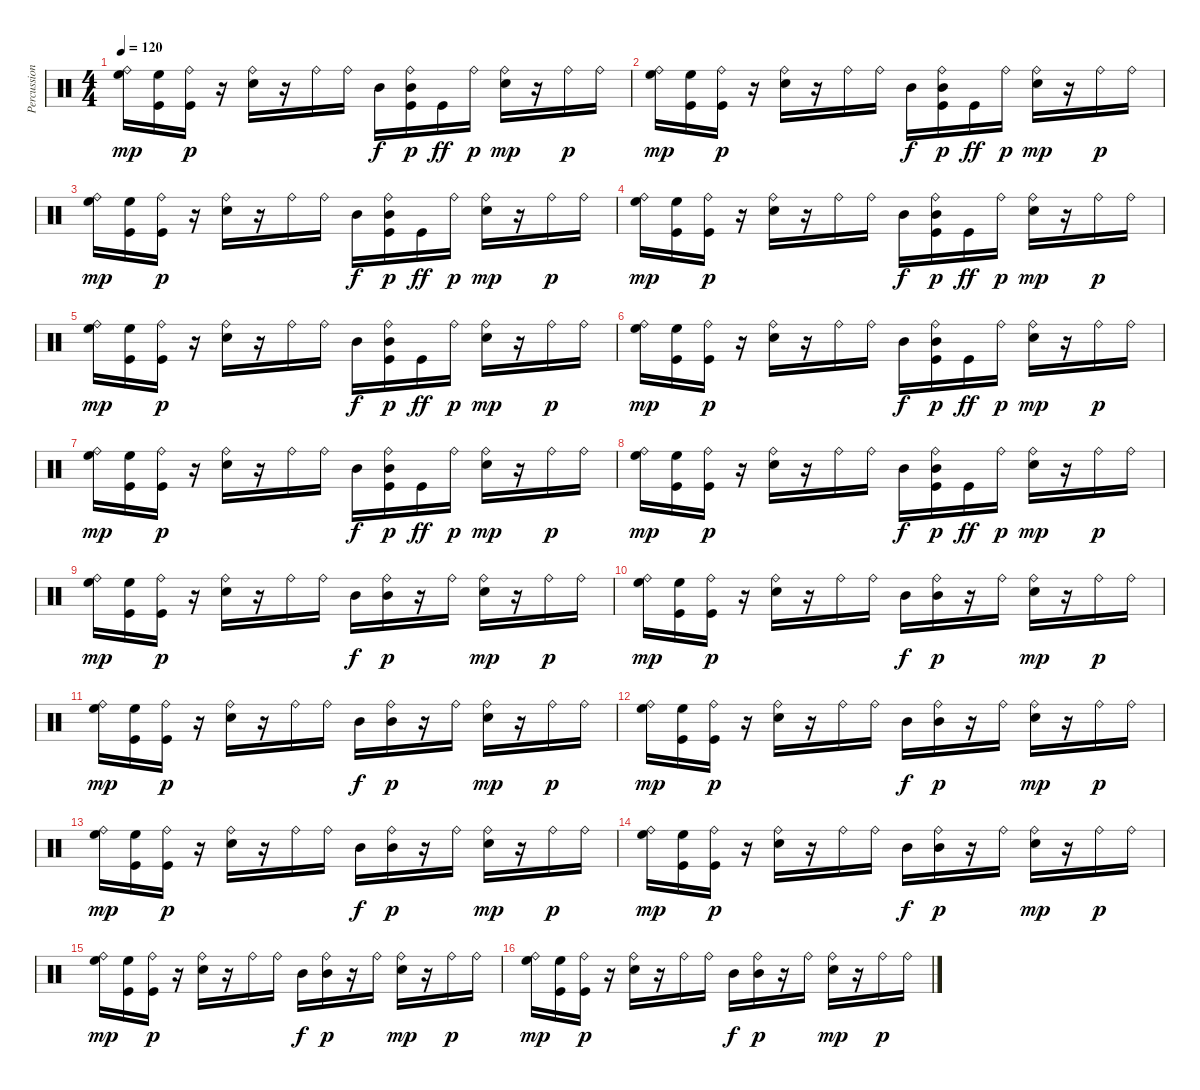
\track ("Percussions" "Percussion") {instrument percussion}
\staff {score}
\articulation defaults
\ts (4 4)
\tempo 120
\clef neutral
\ks c
("High Floor Tom (hit)" "Ride (bell)").16{dy mp} ("Kick (hit)" "High Floor Tom (hit)").16 ("Kick (hit)" "Ride (bell)").16{dy p} r.16 ("Snare (hit) 2" "Ride (bell)").16 r.16 "Ride (bell)".16 "Ride (bell)".16 "Mid Tom (hit)".16{dy f} ("Kick (hit)" "Mid Tom (hit)" "Ride (bell)").16{dy p} "Kick (hit)".16{dy ff} "Ride (bell)".16{dy p} ("Snare (hit) 2" "Ride (bell)").16{dy mp} r.16 "Ride (bell)".16{dy p} "Ride (bell)".16 |
("High Floor Tom (hit)" "Ride (bell)").16{dy mp} ("Kick (hit)" "High Floor Tom (hit)").16 ("Kick (hit)" "Ride (bell)").16{dy p} r.16 ("Snare (hit) 2" "Ride (bell)").16 r.16 "Ride (bell)".16 "Ride (bell)".16 "Mid Tom (hit)".16{dy f} ("Kick (hit)" "Mid Tom (hit)" "Ride (bell)").16{dy p} "Kick (hit)".16{dy ff} "Ride (bell)".16{dy p} ("Snare (hit) 2" "Ride (bell)").16{dy mp} r.16 "Ride (bell)".16{dy p} "Ride (bell)".16 |
("High Floor Tom (hit)" "Ride (bell)").16{dy mp} ("Kick (hit)" "High Floor Tom (hit)").16 ("Kick (hit)" "Ride (bell)").16{dy p} r.16 ("Snare (hit) 2" "Ride (bell)").16 r.16 "Ride (bell)".16 "Ride (bell)".16 "Mid Tom (hit)".16{dy f} ("Kick (hit)" "Mid Tom (hit)" "Ride (bell)").16{dy p} "Kick (hit)".16{dy ff} "Ride (bell)".16{dy p} ("Snare (hit) 2" "Ride (bell)").16{dy mp} r.16 "Ride (bell)".16{dy p} "Ride (bell)".16 |
("High Floor Tom (hit)" "Ride (bell)").16{dy mp} ("Kick (hit)" "High Floor Tom (hit)").16 ("Kick (hit)" "Ride (bell)").16{dy p} r.16 ("Snare (hit) 2" "Ride (bell)").16 r.16 "Ride (bell)".16 "Ride (bell)".16 "Mid Tom (hit)".16{dy f} ("Kick (hit)" "Mid Tom (hit)" "Ride (bell)").16{dy p} "Kick (hit)".16{dy ff} "Ride (bell)".16{dy p} ("Snare (hit) 2" "Ride (bell)").16{dy mp} r.16 "Ride (bell)".16{dy p} "Ride (bell)".16 |
("High Floor Tom (hit)" "Ride (bell)").16{dy mp} ("Kick (hit)" "High Floor Tom (hit)").16 ("Kick (hit)" "Ride (bell)").16{dy p} r.16 ("Snare (hit) 2" "Ride (bell)").16 r.16 "Ride (bell)".16 "Ride (bell)".16 "Mid Tom (hit)".16{dy f} ("Kick (hit)" "Mid Tom (hit)" "Ride (bell)").16{dy p} "Kick (hit)".16{dy ff} "Ride (bell)".16{dy p} ("Snare (hit) 2" "Ride (bell)").16{dy mp} r.16 "Ride (bell)".16{dy p} "Ride (bell)".16 |
("High Floor Tom (hit)" "Ride (bell)").16{dy mp} ("Kick (hit)" "High Floor Tom (hit)").16 ("Kick (hit)" "Ride (bell)").16{dy p} r.16 ("Snare (hit) 2" "Ride (bell)").16 r.16 "Ride (bell)".16 "Ride (bell)".16 "Mid Tom (hit)".16{dy f} ("Kick (hit)" "Mid Tom (hit)" "Ride (bell)").16{dy p} "Kick (hit)".16{dy ff} "Ride (bell)".16{dy p} ("Snare (hit) 2" "Ride (bell)").16{dy mp} r.16 "Ride (bell)".16{dy p} "Ride (bell)".16 |
("High Floor Tom (hit)" "Ride (bell)").16{dy mp} ("Kick (hit)" "High Floor Tom (hit)").16 ("Kick (hit)" "Ride (bell)").16{dy p} r.16 ("Snare (hit) 2" "Ride (bell)").16 r.16 "Ride (bell)".16 "Ride (bell)".16 "Mid Tom (hit)".16{dy f} ("Kick (hit)" "Mid Tom (hit)" "Ride (bell)").16{dy p} "Kick (hit)".16{dy ff} "Ride (bell)".16{dy p} ("Snare (hit) 2" "Ride (bell)").16{dy mp} r.16 "Ride (bell)".16{dy p} "Ride (bell)".16 |
("High Floor Tom (hit)" "Ride (bell)").16{dy mp} ("Kick (hit)" "High Floor Tom (hit)").16 ("Kick (hit)" "Ride (bell)").16{dy p} r.16 ("Snare (hit) 2" "Ride (bell)").16 r.16 "Ride (bell)".16 "Ride (bell)".16 "Mid Tom (hit)".16{dy f} ("Kick (hit)" "Mid Tom (hit)" "Ride (bell)").16{dy p} "Kick (hit)".16{dy ff} "Ride (bell)".16{dy p} ("Snare (hit) 2" "Ride (bell)").16{dy mp} r.16 "Ride (bell)".16{dy p} "Ride (bell)".16 |
("High Floor Tom (hit)" "Ride (bell)").16{dy mp} ("Kick (hit)" "High Floor Tom (hit)").16 ("Kick (hit)" "Ride (bell)").16{dy p} r.16 ("Snare (hit) 2" "Ride (bell)").16 r.16 "Ride (bell)".16 "Ride (bell)".16 "Mid Tom (hit)".16{dy f} ("Mid Tom (hit)" "Ride (bell)").16{dy p} r.16 "Ride (bell)".16 ("Snare (hit) 2" "Ride (bell)").16{dy mp} r.16 "Ride (bell)".16{dy p} "Ride (bell)".16{volume 15} |
("High Floor Tom (hit)" "Ride (bell)").16{dy mp} ("Kick (hit)" "High Floor Tom (hit)").16 ("Kick (hit)" "Ride (bell)").16{dy p} r.16 ("Snare (hit) 2" "Ride (bell)").16 r.16 "Ride (bell)".16{volume 15} "Ride (bell)".16 "Mid Tom (hit)".16{dy f volume 15} ("Mid Tom (hit)" "Ride (bell)").16{dy p} r.16 "Ride (bell)".16{volume 14} ("Snare (hit) 2" "Ride (bell)").16{dy mp volume 14} r.16 "Ride (bell)".16{dy p volume 14} "Ride (bell)".16{volume 14} |
("High Floor Tom (hit)" "Ride (bell)").16{dy mp} ("Kick (hit)" "High Floor Tom (hit)").16{volume 14} ("Kick (hit)" "Ride (bell)").16{dy p} r.16 ("Snare (hit) 2" "Ride (bell)").16{volume 13} r.16 "Ride (bell)".16{volume 13} "Ride (bell)".16{volume 13} "Mid Tom (hit)".16{dy f} ("Mid Tom (hit)" "Ride (bell)").16{dy p volume 12} r.16 "Ride (bell)".16{volume 12} ("Snare (hit) 2" "Ride (bell)").16{dy mp} r.16 "Ride (bell)".16{dy p volume 12} "Ride (bell)".16{volume 12} |
("High Floor Tom (hit)" "Ride (bell)").16{dy mp} ("Kick (hit)" "High Floor Tom (hit)").16{volume 12} ("Kick (hit)" "Ride (bell)").16{dy p} r.16 ("Snare (hit) 2" "Ride (bell)").16{volume 11} r.16 "Ride (bell)".16{volume 11} "Ride (bell)".16 "Mid Tom (hit)".16{dy f volume 11} ("Mid Tom (hit)" "Ride (bell)").16{dy p} r.16 "Ride (bell)".16{volume 10} ("Snare (hit) 2" "Ride (bell)").16{dy mp volume 10} r.16 "Ride (bell)".16{dy p volume 10} "Ride (bell)".16 |
("High Floor Tom (hit)" "Ride (bell)").16{dy mp volume 10} ("Kick (hit)" "High Floor Tom (hit)").16 ("Kick (hit)" "Ride (bell)").16{dy p volume 9} r.16 ("Snare (hit) 2" "Ride (bell)").16{volume 9} r.16 "Ride (bell)".16{volume 9} "Ride (bell)".16 "Mid Tom (hit)".16{dy f volume 9} ("Mid Tom (hit)" "Ride (bell)").16{dy p} r.16 "Ride (bell)".16{volume 8} ("Snare (hit) 2" "Ride (bell)").16{dy mp volume 8} r.16 "Ride (bell)".16{dy p volume 8} "Ride (bell)".16 |
("High Floor Tom (hit)" "Ride (bell)").16{dy mp volume 8} ("Kick (hit)" "High Floor Tom (hit)").16 ("Kick (hit)" "Ride (bell)").16{dy p volume 7} r.16 ("Snare (hit) 2" "Ride (bell)").16{volume 7} r.16 "Ride (bell)".16{volume 7} "Ride (bell)".16{volume 7} "Mid Tom (hit)".16{dy f} ("Mid Tom (hit)" "Ride (bell)").16{dy p volume 6} r.16 "Ride (bell)".16{volume 6} ("Snare (hit) 2" "Ride (bell)").16{dy mp} r.16 "Ride (bell)".16{dy p volume 6} "Ride (bell)".16{volume 6} |
("High Floor Tom (hit)" "Ride (bell)").16{dy mp} ("Kick (hit)" "High Floor Tom (hit)").16{volume 6} ("Kick (hit)" "Ride (bell)").16{dy p} r.16 ("Snare (hit) 2" "Ride (bell)").16{volume 5} r.16 "Ride (bell)".16{volume 5} "Ride (bell)".16{volume 5} "Mid Tom (hit)".16{dy f} ("Mid Tom (hit)" "Ride (bell)").16{dy p volume 4} r.16 "Ride (bell)".16{volume 4} ("Snare (hit) 2" "Ride (bell)").16{dy mp volume 4} r.16 "Ride (bell)".16{dy p volume 4} "Ride (bell)".16 |
("High Floor Tom (hit)" "Ride (bell)").16{dy mp volume 4} ("Kick (hit)" "High Floor Tom (hit)").16 ("Kick (hit)" "Ride (bell)").16{dy p volume 3} r.16 ("Snare (hit) 2" "Ride (bell)").16{volume 3} r.16 "Ride (bell)".16{volume 3} "Ride (bell)".16{volume 2} "Mid Tom (hit)".16{dy f} ("Mid Tom (hit)" "Ride (bell)").16{dy p volume 2} r.16 "Ride (bell)".16{volume 2} ("Snare (hit) 2" "Ride (bell)").16{dy mp} r.16 "Ride (bell)".16{dy p volume 2} "Ride (bell)".16{volume 2}
